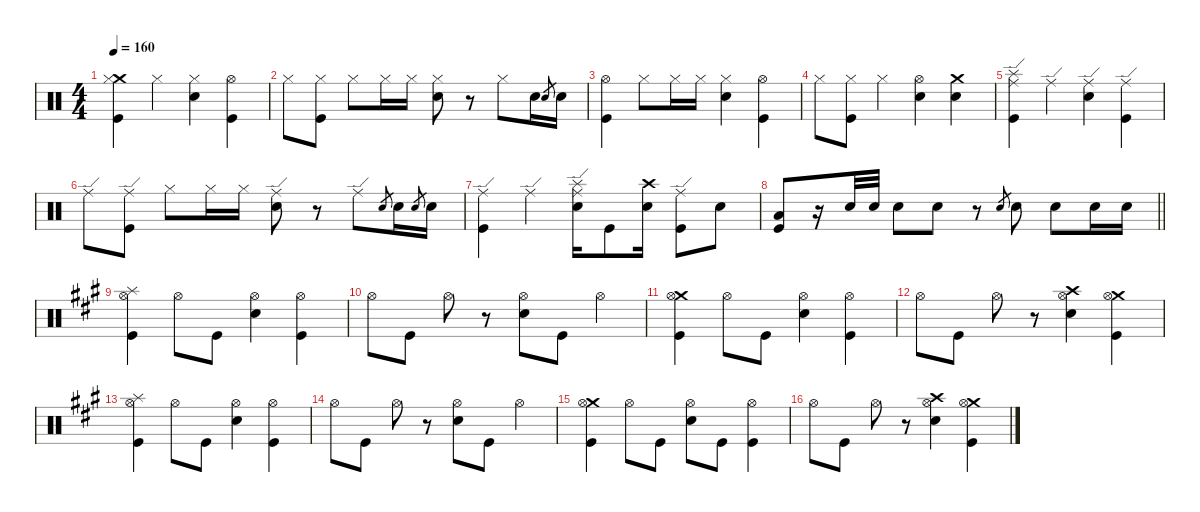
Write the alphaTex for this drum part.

\defaultSystemsLayout 4
\hideDynamics
\bracketExtendMode nobrackets
\singleTrackTrackNamePolicy hidden
\multiTrackTrackNamePolicy hidden
\firstSystemTrackNameMode fullname
\firstSystemTrackNameOrientation horizontal
\otherSystemsTrackNameOrientation horizontal
\track ("Drums" "drm.") {instrument percussion}
\staff {score}
\articulation defaults
\ts (4 4)
\tempo 160
\clef neutral
\ks aminor
("Crash medium (hit)" "Hi-Hat (closed)" "Kick (hit)").4{dy f beam Down} "Hi-Hat (closed)".4{beam Down} ("Hi-Hat (closed)" "Snare (hit) 2").4{beam Down} ("Hi-Hat (open)" "Kick (hit)").4{beam Down} |
"Hi-Hat (closed)".8{beam Down} ("Hi-Hat (closed)" "Kick (hit)").8{beam Down} "Hi-Hat (closed)".8{beam Down} "Hi-Hat (closed)".16{dy mp beam Down} "Hi-Hat (closed)".16{beam Down} ("Hi-Hat (closed)" "Snare (hit) 2").8{dy f beam Down} r.8{beam Down} "Hi-Hat (closed)".8{beam Down} "Snare (hit) 2".16{dy p beam Down} "Electric Snare (hit)".8{gr beam Up} "Snare (hit) 2".16{beam Down} |
("Hi-Hat (open)" "Kick (hit)").4{dy f beam Down} "Hi-Hat (closed)".8{beam Down} "Hi-Hat (closed)".16{dy mp beam Down} "Hi-Hat (closed)".16{beam Down} ("Hi-Hat (closed)" "Snare (hit) 2").4{dy f beam Down} ("Hi-Hat (open)" "Kick (hit)").4{beam Down} |
"Hi-Hat (closed)".8{beam Down} ("Hi-Hat (closed)" "Kick (hit)").8{beam Down} "Hi-Hat (closed)".4{beam Down} ("Hi-Hat (open)" "Snare (hit) 2").4{beam Down} ("Crash medium (hit)" "Snare (hit) 2").4{dy mp beam Down} |
("Splash (hit)" "Kick (hit)" "Ride (edge)").4{dy mf beam Down} "Ride (edge)".4{beam Down} ("Ride (edge)" "Snare (hit) 2").4{dy f beam Down} ("Ride (edge)" "Kick (hit)").4{beam Down} |
"Ride (edge)".8{beam Down} ("Ride (edge)" "Kick (hit)").8{beam Down} "Hi-Hat (closed)".8{dy mp beam Down} "Hi-Hat (closed)".16{beam Down} "Hi-Hat (closed)".16{beam Down} ("Ride (edge)" "Snare (hit) 2").8{dy f beam Down} r.8{beam Down} "Ride (edge)".8{beam Down} "Electric Snare (hit)".8{gr dy pp beam Up} "Snare (hit) 2".16{dy p beam Down} "Electric Snare (hit)".8{gr beam Up} "Snare (hit) 2".16{beam Down} |
("Ride (edge)" "Kick (hit)").4{dy f beam Down} "Ride (edge)".4{beam Down} ("Splash (hit)" "Ride (edge)" "Snare (hit) 2").16{dy mf beam Down} "Kick (hit)".8{dy f beam Down} ("Crash high (hit)" "Snare (hit) 2").16{beam Down} ("Ride (edge)" "Kick (hit)").8{beam Down} "Snare (hit) 2".8{beam Down} |
\barLineRight lightlight
("Low Tom (hit)" "Kick (hit)").8{beam Up} r.16{beam Up} "Snare (hit) 2".32{dy mf beam Up} "Snare (hit) 2".32{beam Up} "Snare (hit) 2".8{dy f beam Down} "Snare (hit) 2".8{beam Down} r.8{beam Down} "Electric Snare (hit)".8{gr dy mf beam Up} "Snare (hit) 2".8{dy f beam Down} "Snare (hit) 2".8{beam Down} "Snare (hit) 2".16{beam Down} "Snare (hit) 2".16{beam Down} |
\ks f#minor
("Splash (hit)"{acc forcenatural} "Hi-Hat (open)"{acc forcenatural} "Kick (hit)"{acc forcenatural}).4{beam Down} "Hi-Hat (open)"{acc forcenatural}.8{beam Down} "Kick (hit)"{acc forcenatural}.8{dy mp beam Down} ("Hi-Hat (open)"{acc forcenatural} "Snare (hit) 2"{acc forcenatural}).4{dy f beam Down} ("Hi-Hat (open)"{acc forcenatural} "Kick (hit)"{acc forcenatural}).4{beam Down} |
"Hi-Hat (open)"{acc forcenatural}.8{beam Down} "Kick (hit)"{acc forcenatural}.8{beam Down} "Hi-Hat (open)"{acc forcenatural}.8{beam Down} r.8{beam Down} ("Hi-Hat (open)"{acc forcenatural} "Snare (hit) 2"{acc forcenatural}).8{beam Down} "Kick (hit)"{acc forcenatural}.8{beam Down} "Hi-Hat (open)"{acc forcenatural}.4{beam Down} |
("Crash medium (hit)"{acc forcenatural} "Hi-Hat (open)"{acc forcenatural} "Kick (hit)"{acc forcenatural}).4{beam Down} "Hi-Hat (open)"{acc forcenatural}.8{beam Down} "Kick (hit)"{acc forcenatural}.8{dy mp beam Down} ("Hi-Hat (open)"{acc forcenatural} "Snare (hit) 2"{acc forcenatural}).4{dy f beam Down} ("Hi-Hat (open)"{acc forcenatural} "Kick (hit)"{acc forcenatural}).4{beam Down} |
"Hi-Hat (open)"{acc forcenatural}.8{beam Down} "Kick (hit)"{acc forcenatural}.8{beam Down} "Hi-Hat (open)"{acc forcenatural}.8{beam Down} r.8{beam Down} ("Crash high (hit)"{acc forcenatural} "Hi-Hat (open)"{acc forcenatural} "Snare (hit) 2"{acc forcenatural}).4{dy mf beam Down} ("Crash medium (hit)"{acc forcenatural} "Hi-Hat (open)"{acc forcenatural} "Kick (hit)"{acc forcenatural}).4{dy f beam Down} |
("Splash (hit)"{acc forcenatural} "Hi-Hat (open)"{acc forcenatural} "Kick (hit)"{acc forcenatural}).4{beam Down} "Hi-Hat (open)"{acc forcenatural}.8{beam Down} "Kick (hit)"{acc forcenatural}.8{dy mp beam Down} ("Hi-Hat (open)"{acc forcenatural} "Snare (hit) 2"{acc forcenatural}).4{dy f beam Down} ("Hi-Hat (open)"{acc forcenatural} "Kick (hit)"{acc forcenatural}).4{beam Down} |
"Hi-Hat (open)"{acc forcenatural}.8{beam Down} "Kick (hit)"{acc forcenatural}.8{beam Down} "Hi-Hat (open)"{acc forcenatural}.8{beam Down} r.8{beam Down} ("Hi-Hat (open)"{acc forcenatural} "Snare (hit) 2"{acc forcenatural}).8{beam Down} "Kick (hit)"{acc forcenatural}.8{beam Down} "Hi-Hat (open)"{acc forcenatural}.4{beam Down} |
("Crash medium (hit)"{acc forcenatural} "Hi-Hat (open)"{acc forcenatural} "Kick (hit)"{acc forcenatural}).4{beam Down} "Hi-Hat (open)"{acc forcenatural}.8{beam Down} "Kick (hit)"{acc forcenatural}.8{dy mp beam Down} ("Hi-Hat (open)"{acc forcenatural} "Snare (hit) 2"{acc forcenatural}).8{dy f beam Down} "Kick (hit)"{acc forcenatural}.8{dy mf beam Down} ("Hi-Hat (open)"{acc forcenatural} "Kick (hit)"{acc forcenatural}).4{dy f beam Down} |
"Hi-Hat (open)"{acc forcenatural}.8{beam Down} "Kick (hit)"{acc forcenatural}.8{beam Down} "Hi-Hat (open)"{acc forcenatural}.8{beam Down} r.8{beam Down} ("Crash high (hit)"{acc forcenatural} "Hi-Hat (open)"{acc forcenatural} "Snare (hit) 2"{acc forcenatural}).4{dy mf beam Down} ("Crash medium (hit)"{acc forcenatural} "Hi-Hat (open)"{acc forcenatural} "Kick (hit)"{acc forcenatural}).4{dy f beam Down}
